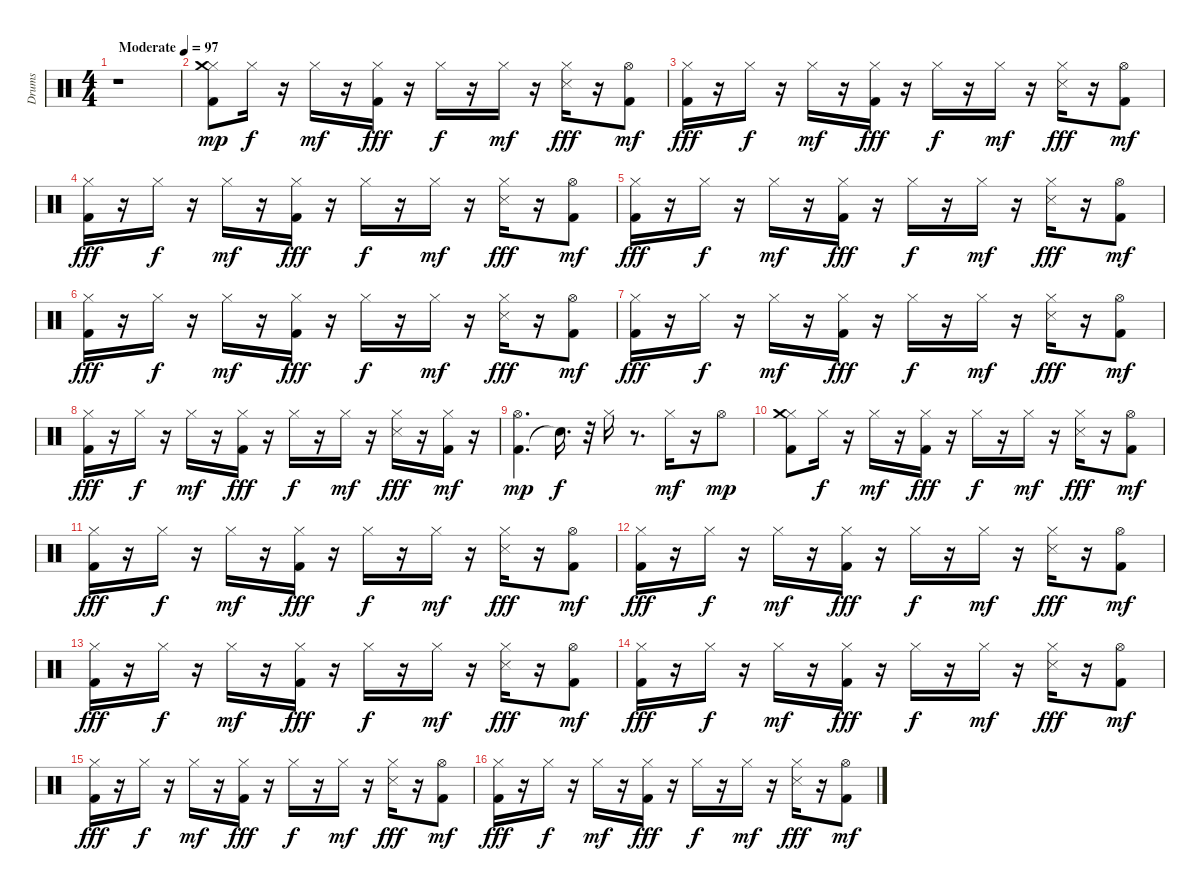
\track ("Drums" "Drums") {instrument percussion}
\staff {score}
\articulation defaults
\ts (4 4)
\tempo (97 "Moderate")
\clef neutral
\ks c
r.1{dy mp} |
("Kick (hit) 2" "Hi-Hat (closed)" "Crash medium (hit)").8 "Hi-Hat (closed)".16{dy f} r.16 "Hi-Hat (closed)".16{dy mf} r.16 ("Kick (hit) 2" "Hi-Hat (closed)").16{dy fff} r.16 "Hi-Hat (closed)".16{dy f} r.16 "Hi-Hat (closed)".16{dy mf} r.16 ("Hi-Hat (closed)" "Snare (side stick) 3").16{dy fff} r.16 ("Kick (hit) 2" "Hi-Hat (open)").8{dy mf} |
("Kick (hit) 2" "Hi-Hat (closed)").16{dy fff} r.16 "Hi-Hat (closed)".16{dy f} r.16 "Hi-Hat (closed)".16{dy mf} r.16 ("Kick (hit) 2" "Hi-Hat (closed)").16{dy fff} r.16 "Hi-Hat (closed)".16{dy f} r.16 "Hi-Hat (closed)".16{dy mf} r.16 ("Hi-Hat (closed)" "Snare (side stick) 3").16{dy fff} r.16 ("Kick (hit) 2" "Hi-Hat (open)").8{dy mf} |
("Kick (hit) 2" "Hi-Hat (closed)").16{dy fff} r.16 "Hi-Hat (closed)".16{dy f} r.16 "Hi-Hat (closed)".16{dy mf} r.16 ("Kick (hit) 2" "Hi-Hat (closed)").16{dy fff} r.16 "Hi-Hat (closed)".16{dy f} r.16 "Hi-Hat (closed)".16{dy mf} r.16 ("Hi-Hat (closed)" "Snare (side stick) 3").16{dy fff} r.16 ("Kick (hit) 2" "Hi-Hat (open)").8{dy mf} |
("Kick (hit) 2" "Hi-Hat (closed)").16{dy fff} r.16 "Hi-Hat (closed)".16{dy f} r.16 "Hi-Hat (closed)".16{dy mf} r.16 ("Kick (hit) 2" "Hi-Hat (closed)").16{dy fff} r.16 "Hi-Hat (closed)".16{dy f} r.16 "Hi-Hat (closed)".16{dy mf} r.16 ("Hi-Hat (closed)" "Snare (side stick) 3").16{dy fff} r.16 ("Kick (hit) 2" "Hi-Hat (open)").8{dy mf} |
("Kick (hit) 2" "Hi-Hat (closed)").16{dy fff} r.16 "Hi-Hat (closed)".16{dy f} r.16 "Hi-Hat (closed)".16{dy mf} r.16 ("Kick (hit) 2" "Hi-Hat (closed)").16{dy fff} r.16 "Hi-Hat (closed)".16{dy f} r.16 "Hi-Hat (closed)".16{dy mf} r.16 ("Hi-Hat (closed)" "Snare (side stick) 3").16{dy fff} r.16 ("Kick (hit) 2" "Hi-Hat (open)").8{dy mf} |
("Kick (hit) 2" "Hi-Hat (closed)").16{dy fff} r.16 "Hi-Hat (closed)".16{dy f} r.16 "Hi-Hat (closed)".16{dy mf} r.16 ("Kick (hit) 2" "Hi-Hat (closed)").16{dy fff} r.16 "Hi-Hat (closed)".16{dy f} r.16 "Hi-Hat (closed)".16{dy mf} r.16 ("Hi-Hat (closed)" "Snare (side stick) 3").16{dy fff} r.16 ("Kick (hit) 2" "Hi-Hat (open)").8{dy mf} |
("Kick (hit) 2" "Hi-Hat (closed)").16{dy fff} r.16 "Hi-Hat (closed)".16{dy f} r.16 "Hi-Hat (closed)".16{dy mf} r.16 ("Kick (hit) 2" "Hi-Hat (closed)").16{dy fff} r.16 "Hi-Hat (closed)".16{dy f} r.16 "Hi-Hat (closed)".16{dy mf} r.16 ("Hi-Hat (closed)" "Snare (side stick) 3").16{dy fff} r.16 ("Kick (hit) 2" "Hi-Hat (closed)").16{dy mf} r.16 |
("Kick (hit) 2" "Hi-Hat (open)").4{d dy mp} "Snare (hit)"{t}.16{d dy f} r.32 "Hi-Hat (closed)".16 r.8{d} "Hi-Hat (closed)".16{dy mf} r.16 "Hi-Hat (open)".8{dy mp} |
("Kick (hit) 2" "Hi-Hat (closed)" "Crash medium (hit)").8 "Hi-Hat (closed)".16{dy f} r.16 "Hi-Hat (closed)".16{dy mf} r.16 ("Kick (hit) 2" "Hi-Hat (closed)").16{dy fff} r.16 "Hi-Hat (closed)".16{dy f} r.16 "Hi-Hat (closed)".16{dy mf} r.16 ("Hi-Hat (closed)" "Snare (side stick) 3").16{dy fff} r.16 ("Kick (hit) 2" "Hi-Hat (open)").8{dy mf} |
("Kick (hit) 2" "Hi-Hat (closed)").16{dy fff} r.16 "Hi-Hat (closed)".16{dy f} r.16 "Hi-Hat (closed)".16{dy mf} r.16 ("Kick (hit) 2" "Hi-Hat (closed)").16{dy fff} r.16 "Hi-Hat (closed)".16{dy f} r.16 "Hi-Hat (closed)".16{dy mf} r.16 ("Hi-Hat (closed)" "Snare (side stick) 3").16{dy fff} r.16 ("Kick (hit) 2" "Hi-Hat (open)").8{dy mf} |
("Kick (hit) 2" "Hi-Hat (closed)").16{dy fff} r.16 "Hi-Hat (closed)".16{dy f} r.16 "Hi-Hat (closed)".16{dy mf} r.16 ("Kick (hit) 2" "Hi-Hat (closed)").16{dy fff} r.16 "Hi-Hat (closed)".16{dy f} r.16 "Hi-Hat (closed)".16{dy mf} r.16 ("Hi-Hat (closed)" "Snare (side stick) 3").16{dy fff} r.16 ("Kick (hit) 2" "Hi-Hat (open)").8{dy mf} |
("Kick (hit) 2" "Hi-Hat (closed)").16{dy fff} r.16 "Hi-Hat (closed)".16{dy f} r.16 "Hi-Hat (closed)".16{dy mf} r.16 ("Kick (hit) 2" "Hi-Hat (closed)").16{dy fff} r.16 "Hi-Hat (closed)".16{dy f} r.16 "Hi-Hat (closed)".16{dy mf} r.16 ("Hi-Hat (closed)" "Snare (side stick) 3").16{dy fff} r.16 ("Kick (hit) 2" "Hi-Hat (open)").8{dy mf} |
("Kick (hit) 2" "Hi-Hat (closed)").16{dy fff} r.16 "Hi-Hat (closed)".16{dy f} r.16 "Hi-Hat (closed)".16{dy mf} r.16 ("Kick (hit) 2" "Hi-Hat (closed)").16{dy fff} r.16 "Hi-Hat (closed)".16{dy f} r.16 "Hi-Hat (closed)".16{dy mf} r.16 ("Hi-Hat (closed)" "Snare (side stick) 3").16{dy fff} r.16 ("Kick (hit) 2" "Hi-Hat (open)").8{dy mf} |
("Kick (hit) 2" "Hi-Hat (closed)").16{dy fff} r.16 "Hi-Hat (closed)".16{dy f} r.16 "Hi-Hat (closed)".16{dy mf} r.16 ("Kick (hit) 2" "Hi-Hat (closed)").16{dy fff} r.16 "Hi-Hat (closed)".16{dy f} r.16 "Hi-Hat (closed)".16{dy mf} r.16 ("Hi-Hat (closed)" "Snare (side stick) 3").16{dy fff} r.16 ("Kick (hit) 2" "Hi-Hat (open)").8{dy mf} |
("Kick (hit) 2" "Hi-Hat (closed)").16{dy fff} r.16 "Hi-Hat (closed)".16{dy f} r.16 "Hi-Hat (closed)".16{dy mf} r.16 ("Kick (hit) 2" "Hi-Hat (closed)").16{dy fff} r.16 "Hi-Hat (closed)".16{dy f} r.16 "Hi-Hat (closed)".16{dy mf} r.16 ("Hi-Hat (closed)" "Snare (side stick) 3").16{dy fff} r.16 ("Kick (hit) 2" "Hi-Hat (open)").8{dy mf}
